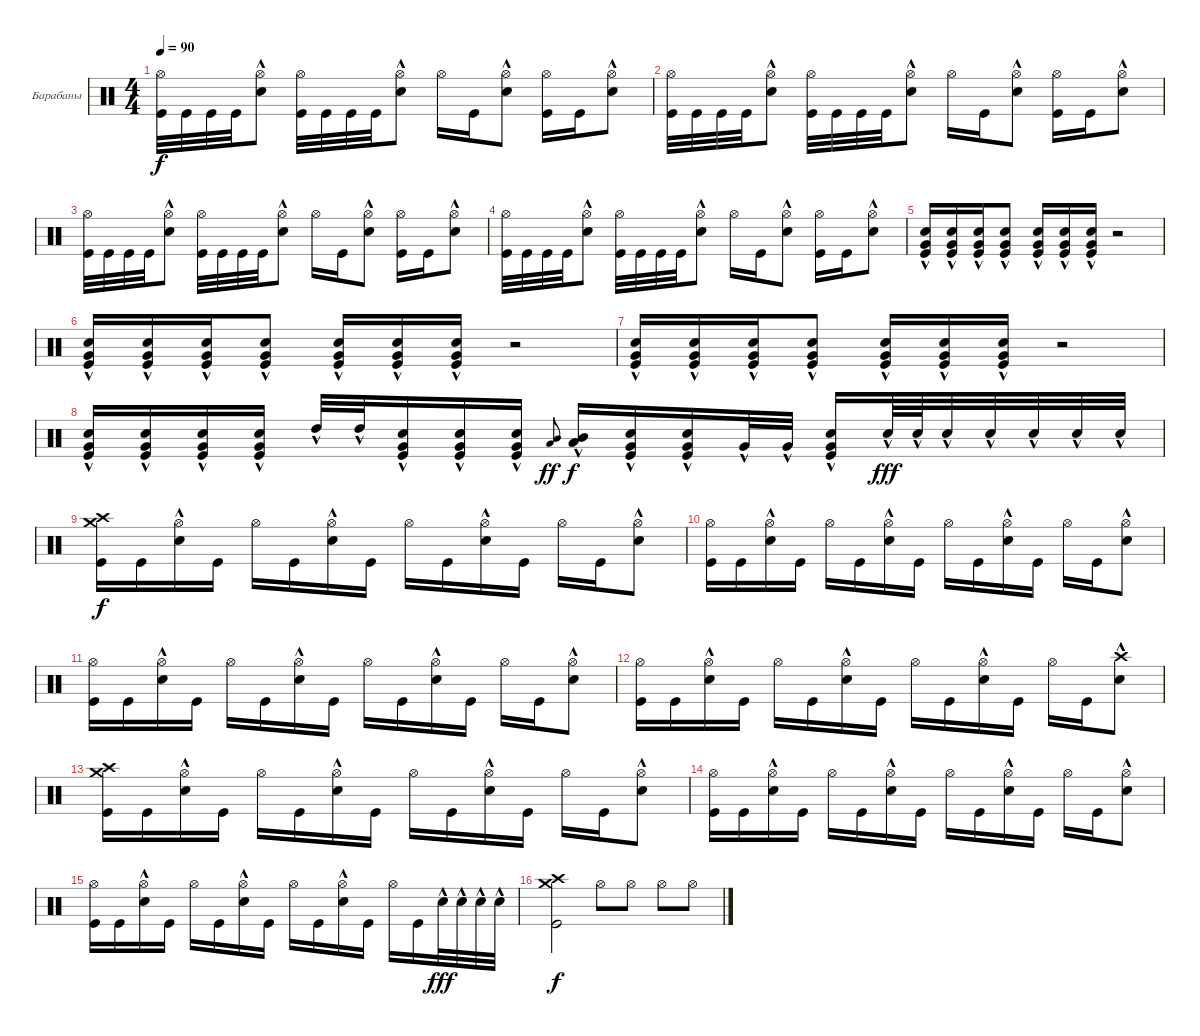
\bracketExtendMode groupsimilarinstruments
\firstSystemTrackNameOrientation horizontal
\otherSystemsTrackNameOrientation horizontal
\track ("Ударные" "Барабаны") {instrument percussion}
\staff {score}
\articulation defaults
\ts (4 4)
\tempo 90
\clef neutral
\ks c
("Hi-Hat (open)" "Kick (hit)").32{dy f} "Kick (hit)".32 "Kick (hit)".32 "Kick (hit)".32 ("Hi-Hat (open)" "Snare (hit) 2"{hac}).8 ("Hi-Hat (open)" "Kick (hit)").32 "Kick (hit)".32 "Kick (hit)".32 "Kick (hit)".32 ("Hi-Hat (open)" "Snare (hit) 2"{hac}).8 "Hi-Hat (open)".16 "Kick (hit)".16 ("Hi-Hat (open)" "Snare (hit) 2"{hac}).8 ("Hi-Hat (open)" "Kick (hit)").16 "Kick (hit)".16 ("Hi-Hat (open)" "Snare (hit) 2"{hac}).8 |
("Hi-Hat (open)" "Kick (hit)").32 "Kick (hit)".32 "Kick (hit)".32 "Kick (hit)".32 ("Hi-Hat (open)" "Snare (hit) 2"{hac}).8 ("Hi-Hat (open)" "Kick (hit)").32 "Kick (hit)".32 "Kick (hit)".32 "Kick (hit)".32 ("Hi-Hat (open)" "Snare (hit) 2"{hac}).8 "Hi-Hat (open)".16 "Kick (hit)".16 ("Hi-Hat (open)" "Snare (hit) 2"{hac}).8 ("Hi-Hat (open)" "Kick (hit)").16 "Kick (hit)".16 ("Hi-Hat (open)" "Snare (hit) 2"{hac}).8 |
("Hi-Hat (open)" "Kick (hit)").32 "Kick (hit)".32 "Kick (hit)".32 "Kick (hit)".32 ("Hi-Hat (open)" "Snare (hit) 2"{hac}).8 ("Hi-Hat (open)" "Kick (hit)").32 "Kick (hit)".32 "Kick (hit)".32 "Kick (hit)".32 ("Hi-Hat (open)" "Snare (hit) 2"{hac}).8 "Hi-Hat (open)".16 "Kick (hit)".16 ("Hi-Hat (open)" "Snare (hit) 2"{hac}).8 ("Hi-Hat (open)" "Kick (hit)").16 "Kick (hit)".16 ("Hi-Hat (open)" "Snare (hit) 2"{hac}).8 |
("Hi-Hat (open)" "Kick (hit)").32 "Kick (hit)".32 "Kick (hit)".32 "Kick (hit)".32 ("Hi-Hat (open)" "Snare (hit) 2"{hac}).8 ("Hi-Hat (open)" "Kick (hit)").32 "Kick (hit)".32 "Kick (hit)".32 "Kick (hit)".32 ("Hi-Hat (open)" "Snare (hit) 2"{hac}).8 "Hi-Hat (open)".16 "Kick (hit)".16 ("Hi-Hat (open)" "Snare (hit) 2"{hac}).8 ("Hi-Hat (open)" "Kick (hit)").16 "Kick (hit)".16 ("Hi-Hat (open)" "Snare (hit) 2"{hac}).8 |
("Kick (hit)" "Snare (hit) 2"{hac} "Very Low Tom (hit)"{hac}).16 ("Kick (hit)" "Snare (hit) 2"{hac} "Very Low Tom (hit)"{hac}).16 ("Kick (hit)" "Snare (hit) 2"{hac} "Very Low Tom (hit)"{hac}).16 ("Kick (hit)" "Snare (hit) 2"{hac} "Very Low Tom (hit)"{hac}).8 ("Kick (hit)" "Snare (hit) 2"{hac} "Very Low Tom (hit)"{hac}).16 ("Kick (hit)" "Snare (hit) 2"{hac} "Very Low Tom (hit)"{hac}).16 ("Kick (hit)" "Snare (hit) 2"{hac} "Very Low Tom (hit)"{hac}).16 r.2 |
("Kick (hit)" "Snare (hit) 2"{hac} "Very Low Tom (hit)"{hac}).16 ("Kick (hit)" "Snare (hit) 2"{hac} "Very Low Tom (hit)"{hac}).16 ("Kick (hit)" "Snare (hit) 2"{hac} "Very Low Tom (hit)"{hac}).16 ("Kick (hit)" "Snare (hit) 2"{hac} "Very Low Tom (hit)"{hac}).8 ("Kick (hit)" "Snare (hit) 2"{hac} "Very Low Tom (hit)"{hac}).16 ("Kick (hit)" "Snare (hit) 2"{hac} "Very Low Tom (hit)"{hac}).16 ("Kick (hit)" "Snare (hit) 2"{hac} "Very Low Tom (hit)"{hac}).16 r.2 |
("Kick (hit)" "Snare (hit) 2"{hac} "Very Low Tom (hit)"{hac}).16 ("Kick (hit)" "Snare (hit) 2"{hac} "Very Low Tom (hit)"{hac}).16 ("Kick (hit)" "Snare (hit) 2"{hac} "Very Low Tom (hit)"{hac}).16 ("Kick (hit)" "Snare (hit) 2"{hac} "Very Low Tom (hit)"{hac}).8 ("Kick (hit)" "Snare (hit) 2"{hac} "Very Low Tom (hit)"{hac}).16 ("Kick (hit)" "Snare (hit) 2"{hac} "Very Low Tom (hit)"{hac}).16 ("Kick (hit)" "Snare (hit) 2"{hac} "Very Low Tom (hit)"{hac}).16 r.2 |
("Kick (hit)" "Snare (hit) 2"{hac} "Very Low Tom (hit)"{hac}).16 ("Kick (hit)" "Snare (hit) 2"{hac} "Very Low Tom (hit)"{hac}).16 ("Kick (hit)" "Snare (hit) 2"{hac} "Very Low Tom (hit)"{hac}).16 ("Kick (hit)" "Snare (hit) 2"{hac} "Very Low Tom (hit)"{hac}).16 "High Tom (hit)"{hac}.32 "High Tom (hit)"{hac}.32 ("Kick (hit)" "Snare (hit) 2"{hac} "Very Low Tom (hit)"{hac}).16 ("Kick (hit)" "Snare (hit) 2"{hac} "Very Low Tom (hit)"{hac}).16 ("Kick (hit)" "Snare (hit) 2"{hac} "Very Low Tom (hit)"{hac}).16 ("Mid Tom (hit)" "Low Tom (hit)").8{gr onbeat dy ff} ("Mid Tom (hit)"{hac} "Low Tom (hit)"{hac}).16{dy f} ("Kick (hit)" "Snare (hit) 2"{hac} "Very Low Tom (hit)"{hac}).16 ("Kick (hit)" "Snare (hit) 2"{hac} "Very Low Tom (hit)"{hac}).16 "Very Low Tom (hit)"{hac}.32 "Very Low Tom (hit)"{hac}.32 ("Kick (hit)" "Snare (hit) 2"{hac} "Very Low Tom (hit)"{hac}).16 "Snare (hit) 2"{hac}.64{dy fff} "Snare (hit) 2"{hac}.64 "Snare (hit) 2"{hac}.32 "Snare (hit) 2"{hac}.32 "Snare (hit) 2"{hac}.32 "Snare (hit) 2"{hac}.32 "Snare (hit) 2"{hac}.32 |
("Crash medium (hit)" "Kick (hit)" "Crash high (hit)").16{dy f} "Kick (hit)".16 ("Hi-Hat (open)" "Snare (hit) 2"{hac}).16 "Kick (hit)".16 "Hi-Hat (open)".16 "Kick (hit)".16 ("Hi-Hat (open)" "Snare (hit) 2"{hac}).16 "Kick (hit)".16 "Hi-Hat (open)".16 "Kick (hit)".16 ("Hi-Hat (open)" "Snare (hit) 2"{hac}).16 "Kick (hit)".16 "Hi-Hat (open)".16 "Kick (hit)".16 ("Hi-Hat (open)" "Snare (hit) 2"{hac}).8 |
("Hi-Hat (open)" "Kick (hit)").16 "Kick (hit)".16 ("Hi-Hat (open)" "Snare (hit) 2"{hac}).16 "Kick (hit)".16 "Hi-Hat (open)".16 "Kick (hit)".16 ("Hi-Hat (open)" "Snare (hit) 2"{hac}).16 "Kick (hit)".16 "Hi-Hat (open)".16 "Kick (hit)".16 ("Hi-Hat (open)" "Snare (hit) 2"{hac}).16 "Kick (hit)".16 "Hi-Hat (open)".16 "Kick (hit)".16 ("Hi-Hat (open)" "Snare (hit) 2"{hac}).8 |
("Hi-Hat (open)" "Kick (hit)").16 "Kick (hit)".16 ("Hi-Hat (open)" "Snare (hit) 2"{hac}).16 "Kick (hit)".16 "Hi-Hat (open)".16 "Kick (hit)".16 ("Hi-Hat (open)" "Snare (hit) 2"{hac}).16 "Kick (hit)".16 "Hi-Hat (open)".16 "Kick (hit)".16 ("Hi-Hat (open)" "Snare (hit) 2"{hac}).16 "Kick (hit)".16 "Hi-Hat (open)".16 "Kick (hit)".16 ("Hi-Hat (open)" "Snare (hit) 2"{hac}).8 |
("Hi-Hat (open)" "Kick (hit)").16 "Kick (hit)".16 ("Hi-Hat (open)" "Snare (hit) 2"{hac}).16 "Kick (hit)".16 "Hi-Hat (open)".16 "Kick (hit)".16 ("Hi-Hat (open)" "Snare (hit) 2"{hac}).16 "Kick (hit)".16 "Hi-Hat (open)".16 "Kick (hit)".16 ("Hi-Hat (open)" "Snare (hit) 2"{hac}).16 "Kick (hit)".16 "Hi-Hat (open)".16 "Kick (hit)".16 ("Crash high (hit)" "Snare (hit) 2"{hac}).8 |
("Crash medium (hit)" "Kick (hit)" "Crash high (hit)").16 "Kick (hit)".16 ("Hi-Hat (open)" "Snare (hit) 2"{hac}).16 "Kick (hit)".16 "Hi-Hat (open)".16 "Kick (hit)".16 ("Hi-Hat (open)" "Snare (hit) 2"{hac}).16 "Kick (hit)".16 "Hi-Hat (open)".16 "Kick (hit)".16 ("Hi-Hat (open)" "Snare (hit) 2"{hac}).16 "Kick (hit)".16 "Hi-Hat (open)".16 "Kick (hit)".16 ("Hi-Hat (open)" "Snare (hit) 2"{hac}).8 |
("Hi-Hat (open)" "Kick (hit)").16 "Kick (hit)".16 ("Hi-Hat (open)" "Snare (hit) 2"{hac}).16 "Kick (hit)".16 "Hi-Hat (open)".16 "Kick (hit)".16 ("Hi-Hat (open)" "Snare (hit) 2"{hac}).16 "Kick (hit)".16 "Hi-Hat (open)".16 "Kick (hit)".16 ("Hi-Hat (open)" "Snare (hit) 2"{hac}).16 "Kick (hit)".16 "Hi-Hat (open)".16 "Kick (hit)".16 ("Hi-Hat (open)" "Snare (hit) 2"{hac}).8 |
("Hi-Hat (open)" "Kick (hit)").16 "Kick (hit)".16 ("Hi-Hat (open)" "Snare (hit) 2"{hac}).16 "Kick (hit)".16 "Hi-Hat (open)".16 "Kick (hit)".16 ("Hi-Hat (open)" "Snare (hit) 2"{hac}).16 "Kick (hit)".16 "Hi-Hat (open)".16 "Kick (hit)".16 ("Hi-Hat (open)" "Snare (hit) 2"{hac}).16 "Kick (hit)".16 "Hi-Hat (open)".16 "Kick (hit)".16 "Snare (hit) 2"{hac}.32{dy fff} "Snare (hit) 2"{hac}.32 "Snare (hit) 2"{hac}.32 "Snare (hit) 2"{hac}.32 |
("Crash medium (hit)" "Kick (hit)" "Crash high (hit)").2{dy f} "Hi-Hat (open)".8 "Hi-Hat (open)".8 "Hi-Hat (open)".8 "Hi-Hat (open)".8
